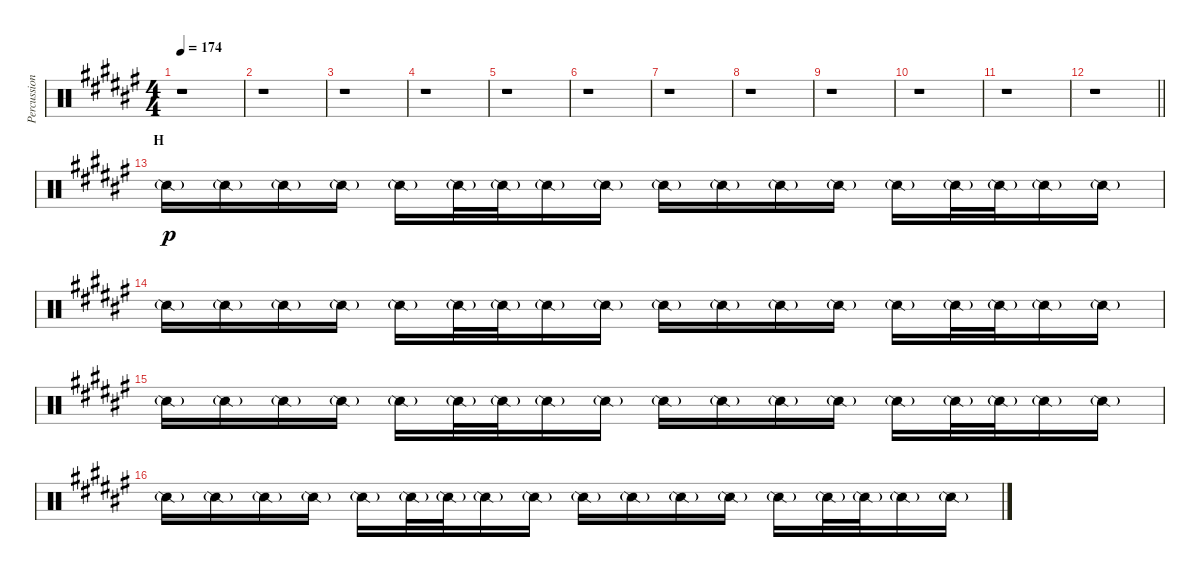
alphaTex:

\track ("Percussion I" "Percussion") {instrument percussion}
\staff {score}
\articulation defaults
\ts (4 4)
\tempo 174
\clef neutral
\ks f#
r.1{dy p} |
r.1 |
r.1 |
r.1 |
r.1 |
r.1 |
r.1 |
r.1 |
r.1 |
r.1 |
r.1 |
\barLineRight lightlight
r.1 |
\section ("" "H")
"Snare (side stick) 2"{g}.16 "Snare (side stick) 2"{g}.16 "Snare (side stick) 2"{g}.16 "Snare (side stick) 2"{g}.16 "Snare (side stick) 2"{g}.16 "Snare (side stick) 2"{g}.32 "Snare (side stick) 2"{g}.32 "Snare (side stick) 2"{g}.16 "Snare (side stick) 2"{g}.16 "Snare (side stick) 2"{g}.16 "Snare (side stick) 2"{g}.16 "Snare (side stick) 2"{g}.16 "Snare (side stick) 2"{g}.16 "Snare (side stick) 2"{g}.16 "Snare (side stick) 2"{g}.32 "Snare (side stick) 2"{g}.32 "Snare (side stick) 2"{g}.16 "Snare (side stick) 2"{g}.16 |
"Snare (side stick) 2"{g}.16 "Snare (side stick) 2"{g}.16 "Snare (side stick) 2"{g}.16 "Snare (side stick) 2"{g}.16 "Snare (side stick) 2"{g}.16 "Snare (side stick) 2"{g}.32 "Snare (side stick) 2"{g}.32 "Snare (side stick) 2"{g}.16 "Snare (side stick) 2"{g}.16 "Snare (side stick) 2"{g}.16 "Snare (side stick) 2"{g}.16 "Snare (side stick) 2"{g}.16 "Snare (side stick) 2"{g}.16 "Snare (side stick) 2"{g}.16 "Snare (side stick) 2"{g}.32 "Snare (side stick) 2"{g}.32 "Snare (side stick) 2"{g}.16 "Snare (side stick) 2"{g}.16 |
"Snare (side stick) 2"{g}.16 "Snare (side stick) 2"{g}.16 "Snare (side stick) 2"{g}.16 "Snare (side stick) 2"{g}.16 "Snare (side stick) 2"{g}.16 "Snare (side stick) 2"{g}.32 "Snare (side stick) 2"{g}.32 "Snare (side stick) 2"{g}.16 "Snare (side stick) 2"{g}.16 "Snare (side stick) 2"{g}.16 "Snare (side stick) 2"{g}.16 "Snare (side stick) 2"{g}.16 "Snare (side stick) 2"{g}.16 "Snare (side stick) 2"{g}.16 "Snare (side stick) 2"{g}.32 "Snare (side stick) 2"{g}.32 "Snare (side stick) 2"{g}.16 "Snare (side stick) 2"{g}.16 |
"Snare (side stick) 2"{g}.16 "Snare (side stick) 2"{g}.16 "Snare (side stick) 2"{g}.16 "Snare (side stick) 2"{g}.16 "Snare (side stick) 2"{g}.16 "Snare (side stick) 2"{g}.32 "Snare (side stick) 2"{g}.32 "Snare (side stick) 2"{g}.16 "Snare (side stick) 2"{g}.16 "Snare (side stick) 2"{g}.16 "Snare (side stick) 2"{g}.16 "Snare (side stick) 2"{g}.16 "Snare (side stick) 2"{g}.16 "Snare (side stick) 2"{g}.16 "Snare (side stick) 2"{g}.32 "Snare (side stick) 2"{g}.32 "Snare (side stick) 2"{g}.16 "Snare (side stick) 2"{g}.16
